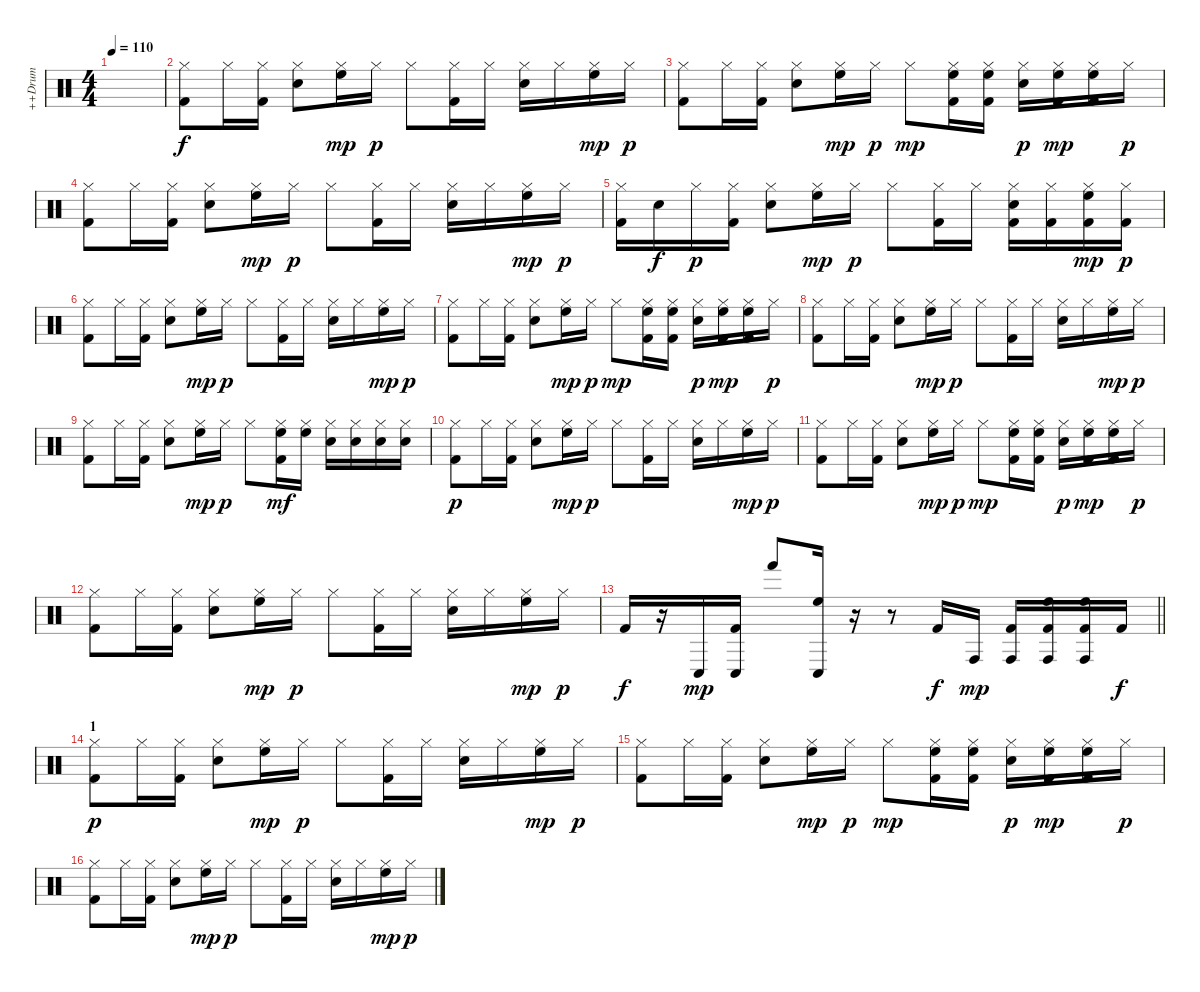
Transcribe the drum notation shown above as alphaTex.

\track ("++Drum" "++Drum") {instrument percussion}
\staff {score}
\articulation defaults
\ts (4 4)
\tempo 110
\clef neutral
\ks c
|
("Hi-Hat (closed)" "Kick (hit) 2").8 "Hi-Hat (closed)".16 ("Hi-Hat (closed)" "Kick (hit) 2").16 ("Hi-Hat (closed)" "Electric Snare (hit)").8 ("Hi-Hat (closed)" "High Floor Tom (hit)").16{dy mp} "Hi-Hat (closed)".16{dy p} "Hi-Hat (closed)".8 ("Hi-Hat (closed)" "Kick (hit) 2").16 "Hi-Hat (closed)".16 ("Hi-Hat (closed)" "Electric Snare (hit)").16 "Hi-Hat (closed)".16 ("Hi-Hat (closed)" "High Floor Tom (hit)").16{dy mp} "Hi-Hat (closed)".16{dy p} |
("Hi-Hat (closed)" "Kick (hit) 2").8 "Hi-Hat (closed)".16 ("Hi-Hat (closed)" "Kick (hit) 2").16 ("Hi-Hat (closed)" "Electric Snare (hit)").8 ("Hi-Hat (closed)" "High Floor Tom (hit)").16{dy mp} "Hi-Hat (closed)".16{dy p} "Hi-Hat (closed)".8{dy mp} ("Hi-Hat (closed)" "High Floor Tom (hit)" "Kick (hit) 2").16 ("Hi-Hat (closed)" "High Floor Tom (hit)" "Kick (hit) 2").16 ("Hi-Hat (closed)" "Electric Snare (hit)").16{dy p} ("Hi-Hat (closed)" "High Floor Tom (hit)" "Kick (hit) 2").16{dy mp} ("Hi-Hat (closed)" "High Floor Tom (hit)" "Kick (hit) 2").16 "Hi-Hat (closed)".16{dy p} |
("Hi-Hat (closed)" "Kick (hit) 2").8 "Hi-Hat (closed)".16 ("Hi-Hat (closed)" "Kick (hit) 2").16 ("Hi-Hat (closed)" "Electric Snare (hit)").8 ("Hi-Hat (closed)" "High Floor Tom (hit)").16{dy mp} "Hi-Hat (closed)".16{dy p} "Hi-Hat (closed)".8 ("Hi-Hat (closed)" "Kick (hit) 2").16 "Hi-Hat (closed)".16 ("Hi-Hat (closed)" "Electric Snare (hit)").16 "Hi-Hat (closed)".16 ("Hi-Hat (closed)" "High Floor Tom (hit)").16{dy mp} "Hi-Hat (closed)".16{dy p} |
("Hi-Hat (closed)" "Kick (hit) 2").16 "Electric Snare (hit)".16{dy f} "Hi-Hat (closed)".16{dy p} ("Hi-Hat (closed)" "Kick (hit) 2").16 ("Hi-Hat (closed)" "Electric Snare (hit)").8 ("Hi-Hat (closed)" "High Floor Tom (hit)").16{dy mp} "Hi-Hat (closed)".16{dy p} "Hi-Hat (closed)".8 ("Hi-Hat (closed)" "Kick (hit) 2").16 "Hi-Hat (closed)".16 ("Hi-Hat (closed)" "Electric Snare (hit)" "Kick (hit) 2").16 ("Hi-Hat (closed)" "Kick (hit) 2").16 ("Hi-Hat (closed)" "High Floor Tom (hit)" "Kick (hit) 2").16{dy mp} ("Hi-Hat (closed)" "Kick (hit) 2").16{dy p} |
("Hi-Hat (closed)" "Kick (hit) 2").8 "Hi-Hat (closed)".16 ("Hi-Hat (closed)" "Kick (hit) 2").16 ("Hi-Hat (closed)" "Electric Snare (hit)").8 ("Hi-Hat (closed)" "High Floor Tom (hit)").16{dy mp} "Hi-Hat (closed)".16{dy p} "Hi-Hat (closed)".8 ("Hi-Hat (closed)" "Kick (hit) 2").16 "Hi-Hat (closed)".16 ("Hi-Hat (closed)" "Electric Snare (hit)").16 "Hi-Hat (closed)".16 ("Hi-Hat (closed)" "High Floor Tom (hit)").16{dy mp} "Hi-Hat (closed)".16{dy p} |
("Hi-Hat (closed)" "Kick (hit) 2").8 "Hi-Hat (closed)".16 ("Hi-Hat (closed)" "Kick (hit) 2").16 ("Hi-Hat (closed)" "Electric Snare (hit)").8 ("Hi-Hat (closed)" "High Floor Tom (hit)").16{dy mp} "Hi-Hat (closed)".16{dy p} "Hi-Hat (closed)".8{dy mp} ("Hi-Hat (closed)" "High Floor Tom (hit)" "Kick (hit) 2").16 ("Hi-Hat (closed)" "High Floor Tom (hit)" "Kick (hit) 2").16 ("Hi-Hat (closed)" "Electric Snare (hit)").16{dy p} ("Hi-Hat (closed)" "High Floor Tom (hit)" "Kick (hit) 2").16{dy mp} ("Hi-Hat (closed)" "High Floor Tom (hit)" "Kick (hit) 2").16 "Hi-Hat (closed)".16{dy p} |
("Hi-Hat (closed)" "Kick (hit) 2").8 "Hi-Hat (closed)".16 ("Hi-Hat (closed)" "Kick (hit) 2").16 ("Hi-Hat (closed)" "Electric Snare (hit)").8 ("Hi-Hat (closed)" "High Floor Tom (hit)").16{dy mp} "Hi-Hat (closed)".16{dy p} "Hi-Hat (closed)".8 ("Hi-Hat (closed)" "Kick (hit) 2").16 "Hi-Hat (closed)".16 ("Hi-Hat (closed)" "Electric Snare (hit)").16 "Hi-Hat (closed)".16 ("Hi-Hat (closed)" "High Floor Tom (hit)").16{dy mp} "Hi-Hat (closed)".16{dy p} |
("Hi-Hat (closed)" "Kick (hit) 2").8 "Hi-Hat (closed)".16 ("Hi-Hat (closed)" "Kick (hit) 2").16 ("Hi-Hat (closed)" "Electric Snare (hit)").8 ("Hi-Hat (closed)" "High Floor Tom (hit)").16{dy mp} "Hi-Hat (closed)".16{dy p} "Hi-Hat (closed)".8 ("Hi-Hat (closed)" "High Floor Tom (hit)" "Kick (hit) 2").16{dy mf} ("Hi-Hat (closed)" "High Floor Tom (hit)").16 ("Hi-Hat (closed)" "Electric Snare (hit)").16 ("Hi-Hat (closed)" "Electric Snare (hit)").16 ("Hi-Hat (closed)" "Electric Snare (hit)").16 ("Hi-Hat (closed)" "Electric Snare (hit)").16 |
("Hi-Hat (closed)" "Kick (hit) 2").8{dy p} "Hi-Hat (closed)".16 ("Hi-Hat (closed)" "Kick (hit) 2").16 ("Hi-Hat (closed)" "Electric Snare (hit)").8 ("Hi-Hat (closed)" "High Floor Tom (hit)").16{dy mp} "Hi-Hat (closed)".16{dy p} "Hi-Hat (closed)".8 ("Hi-Hat (closed)" "Kick (hit) 2").16 "Hi-Hat (closed)".16 ("Hi-Hat (closed)" "Electric Snare (hit)").16 "Hi-Hat (closed)".16 ("Hi-Hat (closed)" "High Floor Tom (hit)").16{dy mp} "Hi-Hat (closed)".16{dy p} |
("Hi-Hat (closed)" "Kick (hit) 2").8 "Hi-Hat (closed)".16 ("Hi-Hat (closed)" "Kick (hit) 2").16 ("Hi-Hat (closed)" "Electric Snare (hit)").8 ("Hi-Hat (closed)" "High Floor Tom (hit)").16{dy mp} "Hi-Hat (closed)".16{dy p} "Hi-Hat (closed)".8{dy mp} ("Hi-Hat (closed)" "High Floor Tom (hit)" "Kick (hit) 2").16 ("Hi-Hat (closed)" "High Floor Tom (hit)" "Kick (hit) 2").16 ("Hi-Hat (closed)" "Electric Snare (hit)").16{dy p} ("Hi-Hat (closed)" "High Floor Tom (hit)" "Kick (hit) 2").16{dy mp} ("Hi-Hat (closed)" "High Floor Tom (hit)" "Kick (hit) 2").16 "Hi-Hat (closed)".16{dy p} |
("Hi-Hat (closed)" "Kick (hit) 2").8 "Hi-Hat (closed)".16 ("Hi-Hat (closed)" "Kick (hit) 2").16 ("Hi-Hat (closed)" "Electric Snare (hit)").8 ("Hi-Hat (closed)" "High Floor Tom (hit)").16{dy mp} "Hi-Hat (closed)".16{dy p} "Hi-Hat (closed)".8 ("Hi-Hat (closed)" "Kick (hit) 2").16 "Hi-Hat (closed)".16 ("Hi-Hat (closed)" "Electric Snare (hit)").16 "Hi-Hat (closed)".16 ("Hi-Hat (closed)" "High Floor Tom (hit)").16{dy mp} "Hi-Hat (closed)".16{dy p} |
\barLineRight lightlight "Kick (hit) 2".16{dy f}
r.16 "Conga low (hit)".16{dy mp} ("Conga low (hit)" "Kick (hit) 2").16 "Hand (hit)".8 ("High Floor Tom (hit)" "Conga low (hit)").16 r.16 r.8 "Kick (hit) 2".16{dy f} "Conga high (hit)".16{dy mp} ("Conga high (hit)" "Kick (hit) 2").16 ("High Floor Tom (hit)" "Conga high (hit)" "Kick (hit) 2").16 ("High Floor Tom (hit)" "Conga high (hit)" "Kick (hit) 2").16 "Kick (hit) 2".16{dy f} |
\section ("" "1")
("Hi-Hat (closed)" "Kick (hit) 2").8{dy p} "Hi-Hat (closed)".16 ("Hi-Hat (closed)" "Kick (hit) 2").16 ("Hi-Hat (closed)" "Electric Snare (hit)").8 ("Hi-Hat (closed)" "High Floor Tom (hit)").16{dy mp} "Hi-Hat (closed)".16{dy p} "Hi-Hat (closed)".8 ("Hi-Hat (closed)" "Kick (hit) 2").16 "Hi-Hat (closed)".16 ("Hi-Hat (closed)" "Electric Snare (hit)").16 "Hi-Hat (closed)".16 ("Hi-Hat (closed)" "High Floor Tom (hit)").16{dy mp} "Hi-Hat (closed)".16{dy p} |
("Hi-Hat (closed)" "Kick (hit) 2").8 "Hi-Hat (closed)".16 ("Hi-Hat (closed)" "Kick (hit) 2").16 ("Hi-Hat (closed)" "Electric Snare (hit)").8 ("Hi-Hat (closed)" "High Floor Tom (hit)").16{dy mp} "Hi-Hat (closed)".16{dy p} "Hi-Hat (closed)".8{dy mp} ("Hi-Hat (closed)" "High Floor Tom (hit)" "Kick (hit) 2").16 ("Hi-Hat (closed)" "High Floor Tom (hit)" "Kick (hit) 2").16 ("Hi-Hat (closed)" "Electric Snare (hit)").16{dy p} ("Hi-Hat (closed)" "High Floor Tom (hit)" "Kick (hit) 2").16{dy mp} ("Hi-Hat (closed)" "High Floor Tom (hit)" "Kick (hit) 2").16 "Hi-Hat (closed)".16{dy p} |
("Hi-Hat (closed)" "Kick (hit) 2").8 "Hi-Hat (closed)".16 ("Hi-Hat (closed)" "Kick (hit) 2").16 ("Hi-Hat (closed)" "Electric Snare (hit)").8 ("Hi-Hat (closed)" "High Floor Tom (hit)").16{dy mp} "Hi-Hat (closed)".16{dy p} "Hi-Hat (closed)".8 ("Hi-Hat (closed)" "Kick (hit) 2").16 "Hi-Hat (closed)".16 ("Hi-Hat (closed)" "Electric Snare (hit)").16 "Hi-Hat (closed)".16 ("Hi-Hat (closed)" "High Floor Tom (hit)").16{dy mp} "Hi-Hat (closed)".16{dy p}
